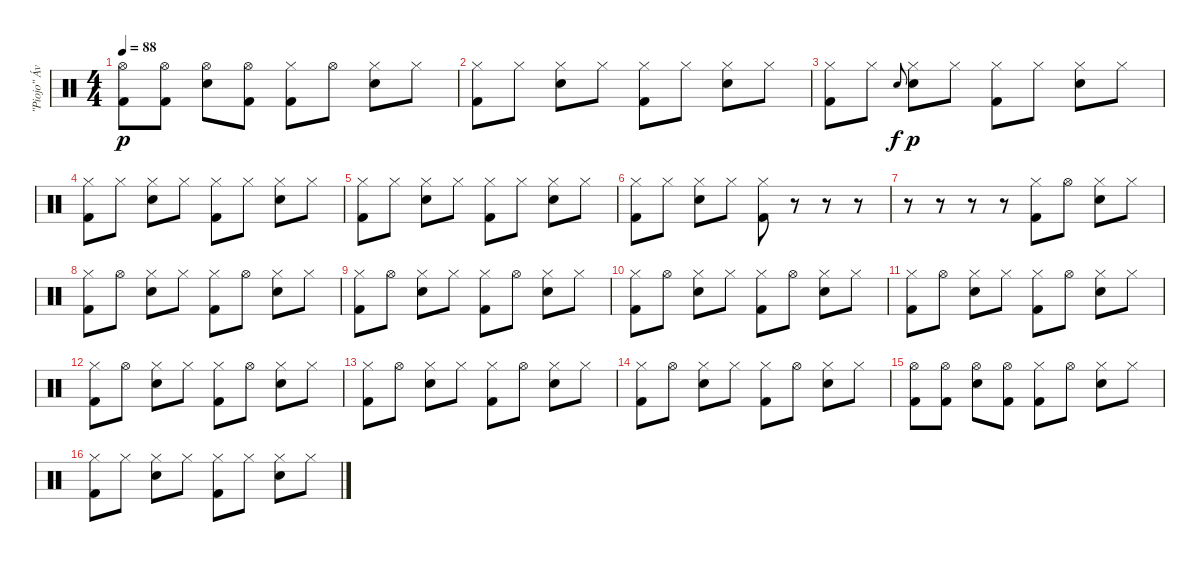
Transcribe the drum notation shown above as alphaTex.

\track ("\"Piojo\" Ávalos" "\"Piojo\" Áv") {instrument percussion}
\staff {score}
\articulation defaults
\ts (4 4)
\tempo 88
\clef neutral
\ks c
("Hi-Hat (open)" "Kick (hit) 2").8{dy p} ("Hi-Hat (open)" "Kick (hit) 2").8 ("Hi-Hat (open)" "Snare (hit) 2").8 ("Hi-Hat (open)" "Kick (hit) 2").8 ("Hi-Hat (closed)" "Kick (hit) 2").8 "Hi-Hat (open)".8 ("Hi-Hat (closed)" "Snare (hit) 2").8 "Hi-Hat (closed)".8 |
("Hi-Hat (closed)" "Kick (hit) 2").8 "Hi-Hat (closed)".8 ("Hi-Hat (closed)" "Snare (hit) 2").8 "Hi-Hat (closed)".8 ("Hi-Hat (closed)" "Kick (hit) 2").8 "Hi-Hat (closed)".8 ("Hi-Hat (closed)" "Snare (hit) 2").8 "Hi-Hat (closed)".8 |
("Hi-Hat (closed)" "Kick (hit) 2").8 "Hi-Hat (closed)".8 "Snare (hit) 2".8{gr onbeat dy f} ("Hi-Hat (closed)" "Snare (hit) 2").8{dy p} "Hi-Hat (closed)".8 ("Hi-Hat (closed)" "Kick (hit) 2").8 "Hi-Hat (closed)".8 ("Hi-Hat (closed)" "Snare (hit) 2").8 "Hi-Hat (closed)".8 |
("Hi-Hat (closed)" "Kick (hit) 2").8 "Hi-Hat (closed)".8 ("Hi-Hat (closed)" "Snare (hit) 2").8 "Hi-Hat (closed)".8 ("Hi-Hat (closed)" "Kick (hit) 2").8 "Hi-Hat (closed)".8 ("Hi-Hat (closed)" "Snare (hit) 2").8 "Hi-Hat (closed)".8 |
("Hi-Hat (closed)" "Kick (hit) 2").8 "Hi-Hat (closed)".8 ("Hi-Hat (closed)" "Snare (hit) 2").8 "Hi-Hat (closed)".8 ("Hi-Hat (closed)" "Kick (hit) 2").8 "Hi-Hat (closed)".8 ("Hi-Hat (closed)" "Snare (hit) 2").8 "Hi-Hat (closed)".8 |
("Hi-Hat (closed)" "Kick (hit) 2").8 "Hi-Hat (closed)".8 ("Hi-Hat (closed)" "Snare (hit) 2").8 "Hi-Hat (closed)".8 ("Hi-Hat (closed)" "Kick (hit) 2").8 r.8 r.8 r.8 |
r.8 r.8 r.8 r.8 ("Hi-Hat (closed)" "Kick (hit) 2").8 "Hi-Hat (open)".8 ("Hi-Hat (closed)" "Snare (hit) 2").8 "Hi-Hat (closed)".8 |
("Hi-Hat (closed)" "Kick (hit) 2").8 "Hi-Hat (open)".8 ("Hi-Hat (closed)" "Snare (hit) 2").8 "Hi-Hat (closed)".8 ("Hi-Hat (closed)" "Kick (hit) 2").8 "Hi-Hat (open)".8 ("Hi-Hat (closed)" "Snare (hit) 2").8 "Hi-Hat (closed)".8 |
("Hi-Hat (closed)" "Kick (hit) 2").8 "Hi-Hat (open)".8 ("Hi-Hat (closed)" "Snare (hit) 2").8 "Hi-Hat (closed)".8 ("Hi-Hat (closed)" "Kick (hit) 2").8 "Hi-Hat (open)".8 ("Hi-Hat (closed)" "Snare (hit) 2").8 "Hi-Hat (closed)".8 |
("Hi-Hat (closed)" "Kick (hit) 2").8 "Hi-Hat (open)".8 ("Hi-Hat (closed)" "Snare (hit) 2").8 "Hi-Hat (closed)".8 ("Hi-Hat (closed)" "Kick (hit) 2").8 "Hi-Hat (open)".8 ("Hi-Hat (closed)" "Snare (hit) 2").8 "Hi-Hat (closed)".8 |
("Hi-Hat (closed)" "Kick (hit) 2").8 "Hi-Hat (open)".8 ("Hi-Hat (closed)" "Snare (hit) 2").8 "Hi-Hat (closed)".8 ("Hi-Hat (closed)" "Kick (hit) 2").8 "Hi-Hat (open)".8 ("Hi-Hat (closed)" "Snare (hit) 2").8 "Hi-Hat (closed)".8 |
("Hi-Hat (closed)" "Kick (hit) 2").8 "Hi-Hat (open)".8 ("Hi-Hat (closed)" "Snare (hit) 2").8 "Hi-Hat (closed)".8 ("Hi-Hat (closed)" "Kick (hit) 2").8 "Hi-Hat (open)".8 ("Hi-Hat (closed)" "Snare (hit) 2").8 "Hi-Hat (closed)".8 |
("Hi-Hat (closed)" "Kick (hit) 2").8 "Hi-Hat (open)".8 ("Hi-Hat (closed)" "Snare (hit) 2").8 "Hi-Hat (closed)".8 ("Hi-Hat (closed)" "Kick (hit) 2").8 "Hi-Hat (open)".8 ("Hi-Hat (closed)" "Snare (hit) 2").8 "Hi-Hat (closed)".8 |
("Hi-Hat (closed)" "Kick (hit) 2").8 "Hi-Hat (open)".8 ("Hi-Hat (closed)" "Snare (hit) 2").8 "Hi-Hat (closed)".8 ("Hi-Hat (closed)" "Kick (hit) 2").8 "Hi-Hat (open)".8 ("Hi-Hat (closed)" "Snare (hit) 2").8 "Hi-Hat (closed)".8 |
("Hi-Hat (open)" "Kick (hit) 2").8 ("Hi-Hat (open)" "Kick (hit) 2").8 ("Hi-Hat (open)" "Snare (hit) 2").8 ("Hi-Hat (open)" "Kick (hit) 2").8 ("Hi-Hat (closed)" "Kick (hit) 2").8 "Hi-Hat (open)".8 ("Hi-Hat (closed)" "Snare (hit) 2").8 "Hi-Hat (closed)".8 |
("Hi-Hat (closed)" "Kick (hit) 2").8 "Hi-Hat (closed)".8 ("Hi-Hat (closed)" "Snare (hit) 2").8 "Hi-Hat (closed)".8 ("Hi-Hat (closed)" "Kick (hit) 2").8 "Hi-Hat (closed)".8 ("Hi-Hat (closed)" "Snare (hit) 2").8 "Hi-Hat (closed)".8
